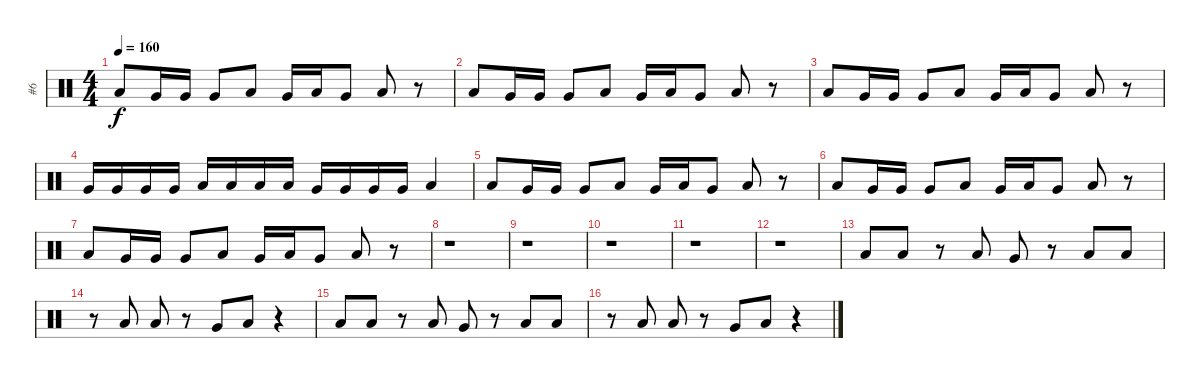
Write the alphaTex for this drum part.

\track ("#6" "#6") {instrument percussion}
\staff {score}
\articulation defaults
\ts (4 4)
\tempo 160
\clef neutral
\ks c "Low Tom (hit)".8{dy f} "Very Low Tom (hit)".16 "Very Low Tom (hit)".16 "Very Low Tom (hit)".8 "Low Tom (hit)".8 "Very Low Tom (hit)".16 "Low Tom (hit)".16 "Very Low Tom (hit)".8 "Low Tom (hit)".8
r.8 |
"Low Tom (hit)".8 "Very Low Tom (hit)".16 "Very Low Tom (hit)".16 "Very Low Tom (hit)".8 "Low Tom (hit)".8 "Very Low Tom (hit)".16 "Low Tom (hit)".16 "Very Low Tom (hit)".8 "Low Tom (hit)".8 r.8 |
"Low Tom (hit)".8 "Very Low Tom (hit)".16 "Very Low Tom (hit)".16 "Very Low Tom (hit)".8 "Low Tom (hit)".8 "Very Low Tom (hit)".16 "Low Tom (hit)".16 "Very Low Tom (hit)".8 "Low Tom (hit)".8 r.8 |
"Very Low Tom (hit)".16 "Very Low Tom (hit)".16 "Very Low Tom (hit)".16 "Very Low Tom (hit)".16 "Low Tom (hit)".16 "Low Tom (hit)".16 "Low Tom (hit)".16 "Low Tom (hit)".16 "Very Low Tom (hit)".16 "Very Low Tom (hit)".16 "Very Low Tom (hit)".16 "Very Low Tom (hit)".16 "Low Tom (hit)".4 |
"Low Tom (hit)".8 "Very Low Tom (hit)".16 "Very Low Tom (hit)".16 "Very Low Tom (hit)".8 "Low Tom (hit)".8 "Very Low Tom (hit)".16 "Low Tom (hit)".16 "Very Low Tom (hit)".8 "Low Tom (hit)".8 r.8 |
"Low Tom (hit)".8 "Very Low Tom (hit)".16 "Very Low Tom (hit)".16 "Very Low Tom (hit)".8 "Low Tom (hit)".8 "Very Low Tom (hit)".16 "Low Tom (hit)".16 "Very Low Tom (hit)".8 "Low Tom (hit)".8 r.8 |
"Low Tom (hit)".8 "Very Low Tom (hit)".16 "Very Low Tom (hit)".16 "Very Low Tom (hit)".8 "Low Tom (hit)".8 "Very Low Tom (hit)".16 "Low Tom (hit)".16 "Very Low Tom (hit)".8 "Low Tom (hit)".8 r.8 |
r.1 |
r.1 |
r.1 |
r.1 |
r.1 |
"Low Tom (hit)".8 "Low Tom (hit)".8 r.8 "Low Tom (hit)".8 "Very Low Tom (hit)".8 r.8 "Low Tom (hit)".8 "Low Tom (hit)".8 |
r.8 "Low Tom (hit)".8 "Low Tom (hit)".8 r.8 "Very Low Tom (hit)".8 "Low Tom (hit)".8 r.4 |
"Low Tom (hit)".8 "Low Tom (hit)".8 r.8 "Low Tom (hit)".8 "Very Low Tom (hit)".8 r.8 "Low Tom (hit)".8 "Low Tom (hit)".8 |
r.8 "Low Tom (hit)".8 "Low Tom (hit)".8 r.8 "Very Low Tom (hit)".8 "Low Tom (hit)".8 r.4
